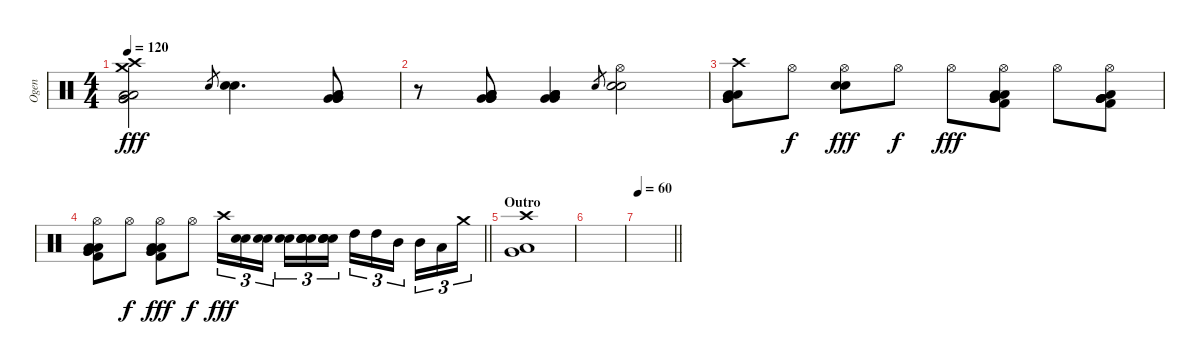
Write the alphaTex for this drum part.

\track ("Ogen" "Ogen") {instrument percussion}
\staff {score}
\articulation defaults
\ts (4 4)
\tempo 120
\clef neutral
\ks c
("Crash high (hit)" "Crash medium (hit)" "Low Floor Tom (hit)" "Very Low Tom (hit)" "Low Floor Tom (hit)" "Very Low Tom (hit)").2{dy fff} "Snare (hit) 2".8{gr} ("Snare (hit) 2" "Electric Snare (hit)").4{d} ("Very Low Tom (hit)" "Very Low Tom (hit)" "Low Floor Tom (hit)" "Very Low Tom (hit)" "Low Floor Tom (hit)").8 |
r.8 ("Very Low Tom (hit)" "Low Floor Tom (hit)" "Very Low Tom (hit)" "Low Floor Tom (hit)" "Very Low Tom (hit)" "Low Floor Tom (hit)").8 ("Low Floor Tom (hit)" "Very Low Tom (hit)" "Low Floor Tom (hit)" "Very Low Tom (hit)" "Low Floor Tom (hit)").4 "Electric Snare (hit)".8{gr} ("Electric Snare (hit)" "Snare (hit) 2" "Hi-Hat (open)").2 |
("Crash high (hit)" "Very Low Tom (hit)" "Low Floor Tom (hit)" "Very Low Tom (hit)" "Low Floor Tom (hit)" "Very Low Tom (hit)").8 "Hi-Hat (open)".8{dy f} ("Hi-Hat (open)" "Electric Snare (hit)" "Snare (hit) 2").8{dy fff} "Hi-Hat (open)".8{dy f} "Hi-Hat (open)".8{dy fff} ("Hi-Hat (open)" "Very Low Tom (hit)" "Kick (hit) 2" "Low Floor Tom (hit)" "Very Low Tom (hit)" "Low Floor Tom (hit)").8 "Hi-Hat (open)".8 ("Hi-Hat (open)" "Very Low Tom (hit)" "Kick (hit) 2" "Very Low Tom (hit)" "Low Floor Tom (hit)" "Very Low Tom (hit)").8 |
\barLineRight lightlight
("Hi-Hat (open)" "Kick (hit) 2" "Very Low Tom (hit)" "Low Floor Tom (hit)" "Very Low Tom (hit)" "Low Floor Tom (hit)").8 "Hi-Hat (open)".8{dy f} ("Hi-Hat (open)" "Kick (hit) 2" "Very Low Tom (hit)" "Low Floor Tom (hit)" "Very Low Tom (hit)" "Low Floor Tom (hit)").8{dy fff} "Hi-Hat (open)".8{dy f} "Crash high (hit)".16{tu (3 2) dy fff} ("Snare (hit) 2" "Electric Snare (hit)").16{tu (3 2)} ("Electric Snare (hit)" "Snare (hit) 2").16{tu (3 2) beam splitsecondary} ("Snare (hit) 2" "Electric Snare (hit)").16{tu (3 2)} ("Electric Snare (hit)" "Electric Snare (hit)" "Snare (hit) 2" "Snare (hit) 2").16{tu (3 2)} ("Electric Snare (hit)" "Snare (hit) 2" "Snare (hit) 2" "Electric Snare (hit)").16{tu (3 2)} "High Tom (hit)".16{tu (3 2)} "High Tom (hit)".16{tu (3 2)} "Mid Tom (hit)".16{tu (3 2) beam splitsecondary} "Mid Tom (hit)".16{tu (3 2)} "Low Tom (hit)".16{tu (3 2)} "Crash medium (hit)".16{tu (3 2)} |
\section ("" "Outro")
("Crash high (hit)" "Very Low Tom (hit)" "Low Floor Tom (hit)").1 |
|
\tempo 60
\barLineRight lightlight
